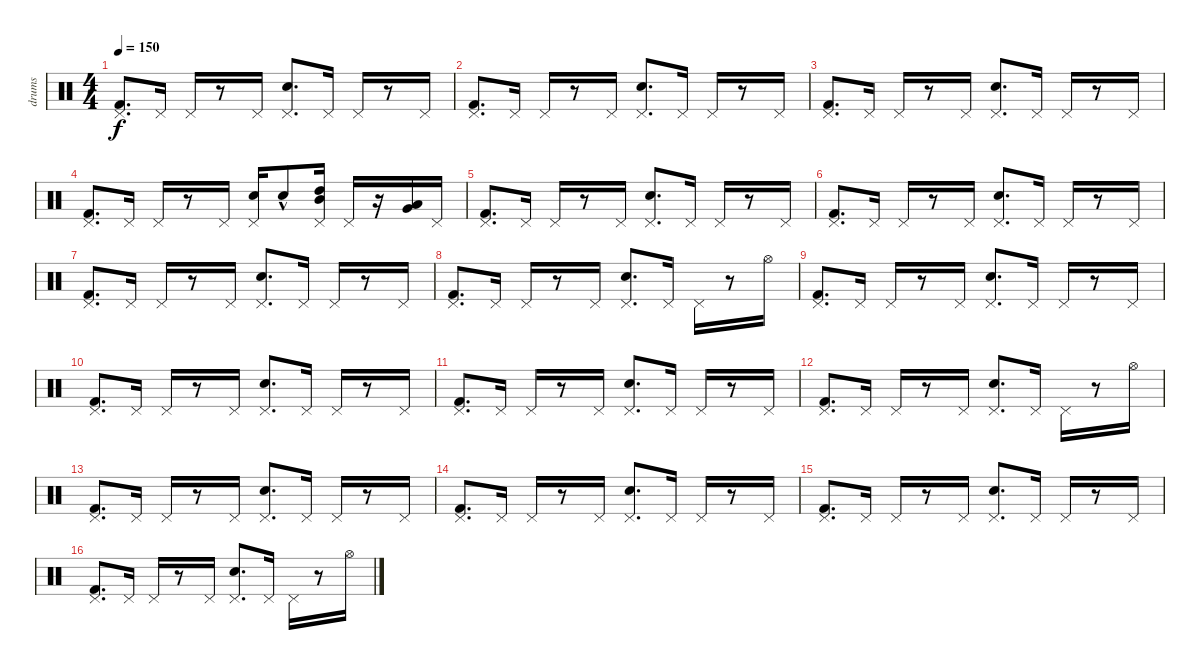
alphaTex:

\track ("drums" "drums") {instrument percussion}
\staff {score}
\articulation defaults
\ts (4 4)
\tempo 150
\clef neutral
\ks c
("Kick (hit) 2" "Pedal Hi-Hat (hit)").8{d dy f} "Pedal Hi-Hat (hit)".16 "Pedal Hi-Hat (hit)".16 r.8 "Pedal Hi-Hat (hit)".16 ("Snare (hit) 2" "Pedal Hi-Hat (hit)").8{d} "Pedal Hi-Hat (hit)".16 "Pedal Hi-Hat (hit)".16 r.8 "Pedal Hi-Hat (hit)".16 |
("Kick (hit) 2" "Pedal Hi-Hat (hit)").8{d} "Pedal Hi-Hat (hit)".16 "Pedal Hi-Hat (hit)".16 r.8 "Pedal Hi-Hat (hit)".16 ("Snare (hit) 2" "Pedal Hi-Hat (hit)").8{d} "Pedal Hi-Hat (hit)".16 "Pedal Hi-Hat (hit)".16 r.8 "Pedal Hi-Hat (hit)".16 |
("Kick (hit) 2" "Pedal Hi-Hat (hit)").8{d} "Pedal Hi-Hat (hit)".16 "Pedal Hi-Hat (hit)".16 r.8 "Pedal Hi-Hat (hit)".16 ("Snare (hit) 2" "Pedal Hi-Hat (hit)").8{d} "Pedal Hi-Hat (hit)".16 "Pedal Hi-Hat (hit)".16 r.8 "Pedal Hi-Hat (hit)".16 |
("Kick (hit) 2" "Pedal Hi-Hat (hit)").8{d} "Pedal Hi-Hat (hit)".16 "Pedal Hi-Hat (hit)".16 r.8 "Pedal Hi-Hat (hit)".16 ("Snare (hit) 2" "Pedal Hi-Hat (hit)").16 "Snare (hit) 2"{hac}.8 ("Pedal Hi-Hat (hit)" "High Tom (hit)" "Mid Tom (hit)").16 "Pedal Hi-Hat (hit)".16 r.16 ("Very Low Tom (hit)" "Low Tom (hit)").16 "Pedal Hi-Hat (hit)".16 |
("Kick (hit) 2" "Pedal Hi-Hat (hit)").8{d} "Pedal Hi-Hat (hit)".16 "Pedal Hi-Hat (hit)".16 r.8 "Pedal Hi-Hat (hit)".16 ("Snare (hit) 2" "Pedal Hi-Hat (hit)").8{d} "Pedal Hi-Hat (hit)".16 "Pedal Hi-Hat (hit)".16 r.8 "Pedal Hi-Hat (hit)".16 |
("Kick (hit) 2" "Pedal Hi-Hat (hit)").8{d} "Pedal Hi-Hat (hit)".16 "Pedal Hi-Hat (hit)".16 r.8 "Pedal Hi-Hat (hit)".16 ("Snare (hit) 2" "Pedal Hi-Hat (hit)").8{d} "Pedal Hi-Hat (hit)".16 "Pedal Hi-Hat (hit)".16 r.8 "Pedal Hi-Hat (hit)".16 |
("Kick (hit) 2" "Pedal Hi-Hat (hit)").8{d} "Pedal Hi-Hat (hit)".16 "Pedal Hi-Hat (hit)".16 r.8 "Pedal Hi-Hat (hit)".16 ("Snare (hit) 2" "Pedal Hi-Hat (hit)").8{d} "Pedal Hi-Hat (hit)".16 "Pedal Hi-Hat (hit)".16 r.8 "Pedal Hi-Hat (hit)".16 |
("Kick (hit) 2" "Pedal Hi-Hat (hit)").8{d} "Pedal Hi-Hat (hit)".16 "Pedal Hi-Hat (hit)".16 r.8 "Pedal Hi-Hat (hit)".16 ("Snare (hit) 2" "Pedal Hi-Hat (hit)").8{d} "Pedal Hi-Hat (hit)".16 "Pedal Hi-Hat (hit)".16 r.8 "Hi-Hat (open)".16 |
("Kick (hit) 2" "Pedal Hi-Hat (hit)").8{d} "Pedal Hi-Hat (hit)".16 "Pedal Hi-Hat (hit)".16 r.8 "Pedal Hi-Hat (hit)".16 ("Snare (hit) 2" "Pedal Hi-Hat (hit)").8{d} "Pedal Hi-Hat (hit)".16 "Pedal Hi-Hat (hit)".16 r.8 "Pedal Hi-Hat (hit)".16 |
("Kick (hit) 2" "Pedal Hi-Hat (hit)").8{d} "Pedal Hi-Hat (hit)".16 "Pedal Hi-Hat (hit)".16 r.8 "Pedal Hi-Hat (hit)".16 ("Snare (hit) 2" "Pedal Hi-Hat (hit)").8{d} "Pedal Hi-Hat (hit)".16 "Pedal Hi-Hat (hit)".16 r.8 "Pedal Hi-Hat (hit)".16 |
("Kick (hit) 2" "Pedal Hi-Hat (hit)").8{d} "Pedal Hi-Hat (hit)".16 "Pedal Hi-Hat (hit)".16 r.8 "Pedal Hi-Hat (hit)".16 ("Snare (hit) 2" "Pedal Hi-Hat (hit)").8{d} "Pedal Hi-Hat (hit)".16 "Pedal Hi-Hat (hit)".16 r.8 "Pedal Hi-Hat (hit)".16 |
("Kick (hit) 2" "Pedal Hi-Hat (hit)").8{d} "Pedal Hi-Hat (hit)".16 "Pedal Hi-Hat (hit)".16 r.8 "Pedal Hi-Hat (hit)".16 ("Snare (hit) 2" "Pedal Hi-Hat (hit)").8{d} "Pedal Hi-Hat (hit)".16 "Pedal Hi-Hat (hit)".16 r.8 "Hi-Hat (open)".16 |
("Kick (hit) 2" "Pedal Hi-Hat (hit)").8{d} "Pedal Hi-Hat (hit)".16 "Pedal Hi-Hat (hit)".16 r.8 "Pedal Hi-Hat (hit)".16 ("Snare (hit) 2" "Pedal Hi-Hat (hit)").8{d} "Pedal Hi-Hat (hit)".16 "Pedal Hi-Hat (hit)".16 r.8 "Pedal Hi-Hat (hit)".16 |
("Kick (hit) 2" "Pedal Hi-Hat (hit)").8{d} "Pedal Hi-Hat (hit)".16 "Pedal Hi-Hat (hit)".16 r.8 "Pedal Hi-Hat (hit)".16 ("Snare (hit) 2" "Pedal Hi-Hat (hit)").8{d} "Pedal Hi-Hat (hit)".16 "Pedal Hi-Hat (hit)".16 r.8 "Pedal Hi-Hat (hit)".16 |
("Kick (hit) 2" "Pedal Hi-Hat (hit)").8{d} "Pedal Hi-Hat (hit)".16 "Pedal Hi-Hat (hit)".16 r.8 "Pedal Hi-Hat (hit)".16 ("Snare (hit) 2" "Pedal Hi-Hat (hit)").8{d} "Pedal Hi-Hat (hit)".16 "Pedal Hi-Hat (hit)".16 r.8 "Pedal Hi-Hat (hit)".16 |
("Kick (hit) 2" "Pedal Hi-Hat (hit)").8{d} "Pedal Hi-Hat (hit)".16 "Pedal Hi-Hat (hit)".16 r.8 "Pedal Hi-Hat (hit)".16 ("Snare (hit) 2" "Pedal Hi-Hat (hit)").8{d} "Pedal Hi-Hat (hit)".16 "Pedal Hi-Hat (hit)".16 r.8 "Hi-Hat (open)".16
